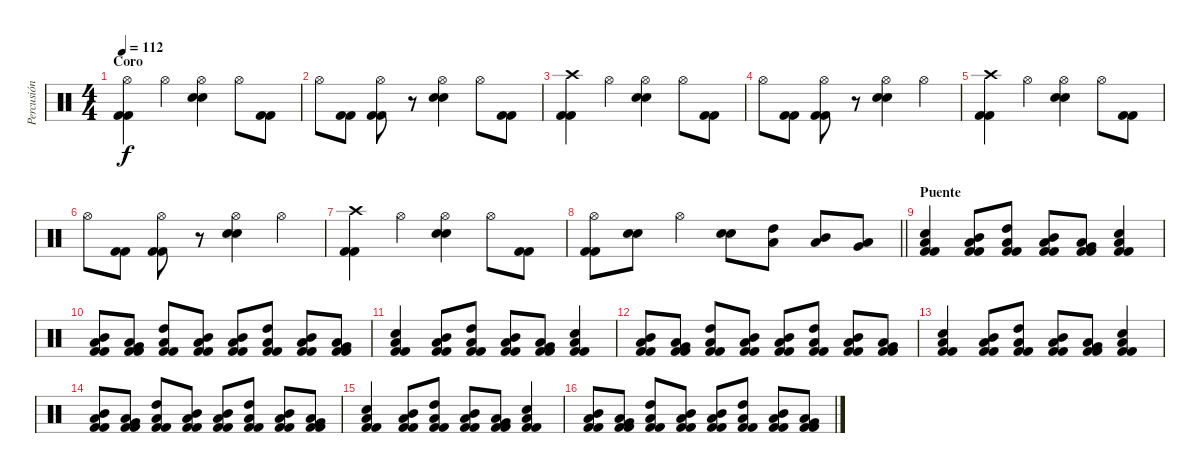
\track ("Percusión" "Percusión") {instrument percussion}
\staff {score}
\articulation defaults
\ts (4 4)
\section ("" "Coro")
\tempo 112
\clef neutral
\ks c
("Kick (hit) 2" "Hi-Hat (open)" "Kick (hit) 2").4{dy f} "Hi-Hat (open)".4 ("Hi-Hat (open)" "Electric Snare (hit)" "Electric Snare (hit)").4 "Hi-Hat (open)".8 ("Kick (hit) 2" "Kick (hit) 2").8 |
"Hi-Hat (open)".8 ("Kick (hit) 2" "Kick (hit) 2").8 ("Kick (hit) 2" "Hi-Hat (open)" "Kick (hit) 2").8 r.8 ("Electric Snare (hit)" "Electric Snare (hit)" "Hi-Hat (open)").4 "Hi-Hat (open)".8 ("Kick (hit) 2" "Kick (hit) 2").8 |
("Kick (hit) 2" "Crash high (hit)" "Kick (hit) 2").4 "Hi-Hat (open)".4 ("Hi-Hat (open)" "Electric Snare (hit)" "Electric Snare (hit)").4 "Hi-Hat (open)".8 ("Kick (hit) 2" "Kick (hit) 2").8 |
"Hi-Hat (open)".8 ("Kick (hit) 2" "Kick (hit) 2").8 ("Kick (hit) 2" "Hi-Hat (open)" "Kick (hit) 2").8 r.8 ("Electric Snare (hit)" "Electric Snare (hit)" "Hi-Hat (open)").4 "Hi-Hat (open)".4 |
("Kick (hit) 2" "Crash high (hit)" "Kick (hit) 2").4 "Hi-Hat (open)".4 ("Hi-Hat (open)" "Electric Snare (hit)" "Electric Snare (hit)").4 "Hi-Hat (open)".8 ("Kick (hit) 2" "Kick (hit) 2").8 |
"Hi-Hat (open)".8 ("Kick (hit) 2" "Kick (hit) 2").8 ("Kick (hit) 2" "Hi-Hat (open)" "Kick (hit) 2").8 r.8 ("Electric Snare (hit)" "Electric Snare (hit)" "Hi-Hat (open)").4 "Hi-Hat (open)".4 |
("Kick (hit) 2" "Crash high (hit)" "Kick (hit) 2").4 "Hi-Hat (open)".4 ("Hi-Hat (open)" "Electric Snare (hit)" "Electric Snare (hit)").4 "Hi-Hat (open)".8 ("Kick (hit) 2" "Kick (hit) 2").8 |
\barLineRight lightlight
("Kick (hit) 2" "Hi-Hat (open)" "Kick (hit) 2").8 ("Electric Snare (hit)" "Electric Snare (hit)").8 "Hi-Hat (open)".4 ("Electric Snare (hit)" "Electric Snare (hit)").8 ("High Tom (hit)" "Low Tom (hit)").8 ("Mid Tom (hit)" "Low Tom (hit)").8 ("Low Tom (hit)" "Very Low Tom (hit)").8 |
\section ("" "Puente")
("Kick (hit) 2" "Electric Snare (hit)" "Low Tom (hit)" "Kick (hit) 2").4 ("Kick (hit) 2" "Mid Tom (hit)" "Low Tom (hit)" "Kick (hit) 2").8 ("Kick (hit) 2" "High Tom (hit)" "Low Tom (hit)" "Kick (hit) 2").8 ("Kick (hit) 2" "Mid Tom (hit)" "Low Tom (hit)" "Kick (hit) 2").8 ("Kick (hit) 2" "Low Tom (hit)" "Very Low Tom (hit)" "Kick (hit) 2").8 ("Kick (hit) 2" "Electric Snare (hit)" "Low Tom (hit)" "Kick (hit) 2").4 |
("Kick (hit) 2" "Low Tom (hit)" "Mid Tom (hit)" "Kick (hit) 2").8 ("Kick (hit) 2" "Very Low Tom (hit)" "Low Tom (hit)" "Kick (hit) 2").8 ("Kick (hit) 2" "High Tom (hit)" "Low Tom (hit)" "Kick (hit) 2").8 ("Kick (hit) 2" "Low Tom (hit)" "Mid Tom (hit)" "Kick (hit) 2").8 ("Kick (hit) 2" "Low Tom (hit)" "Mid Tom (hit)" "Kick (hit) 2").8 ("Kick (hit) 2" "High Tom (hit)" "Low Tom (hit)" "Kick (hit) 2").8 ("Kick (hit) 2" "Low Tom (hit)" "Mid Tom (hit)" "Kick (hit) 2").8 ("Kick (hit) 2" "Very Low Tom (hit)" "Low Tom (hit)" "Kick (hit) 2").8 |
("Kick (hit) 2" "Electric Snare (hit)" "Low Tom (hit)" "Kick (hit) 2").4 ("Kick (hit) 2" "Mid Tom (hit)" "Low Tom (hit)" "Kick (hit) 2").8 ("Kick (hit) 2" "High Tom (hit)" "Low Tom (hit)" "Kick (hit) 2").8 ("Kick (hit) 2" "Mid Tom (hit)" "Low Tom (hit)" "Kick (hit) 2").8 ("Kick (hit) 2" "Low Tom (hit)" "Very Low Tom (hit)" "Kick (hit) 2").8 ("Kick (hit) 2" "Electric Snare (hit)" "Low Tom (hit)" "Kick (hit) 2").4 |
("Kick (hit) 2" "Low Tom (hit)" "Mid Tom (hit)" "Kick (hit) 2").8 ("Kick (hit) 2" "Very Low Tom (hit)" "Low Tom (hit)" "Kick (hit) 2").8 ("Kick (hit) 2" "High Tom (hit)" "Low Tom (hit)" "Kick (hit) 2").8 ("Kick (hit) 2" "Low Tom (hit)" "Mid Tom (hit)" "Kick (hit) 2").8 ("Kick (hit) 2" "Low Tom (hit)" "Mid Tom (hit)" "Kick (hit) 2").8 ("Kick (hit) 2" "High Tom (hit)" "Low Tom (hit)" "Kick (hit) 2").8 ("Kick (hit) 2" "Low Tom (hit)" "Mid Tom (hit)" "Kick (hit) 2").8 ("Kick (hit) 2" "Very Low Tom (hit)" "Low Tom (hit)" "Kick (hit) 2").8 |
("Kick (hit) 2" "Electric Snare (hit)" "Low Tom (hit)" "Kick (hit) 2").4 ("Kick (hit) 2" "Mid Tom (hit)" "Low Tom (hit)" "Kick (hit) 2").8 ("Kick (hit) 2" "High Tom (hit)" "Low Tom (hit)" "Kick (hit) 2").8 ("Kick (hit) 2" "Mid Tom (hit)" "Low Tom (hit)" "Kick (hit) 2").8 ("Kick (hit) 2" "Low Tom (hit)" "Very Low Tom (hit)" "Kick (hit) 2").8 ("Kick (hit) 2" "Electric Snare (hit)" "Low Tom (hit)" "Kick (hit) 2").4 |
("Kick (hit) 2" "Low Tom (hit)" "Mid Tom (hit)" "Kick (hit) 2").8 ("Kick (hit) 2" "Very Low Tom (hit)" "Low Tom (hit)" "Kick (hit) 2").8 ("Kick (hit) 2" "High Tom (hit)" "Low Tom (hit)" "Kick (hit) 2").8 ("Kick (hit) 2" "Low Tom (hit)" "Mid Tom (hit)" "Kick (hit) 2").8 ("Kick (hit) 2" "Low Tom (hit)" "Mid Tom (hit)" "Kick (hit) 2").8 ("Kick (hit) 2" "High Tom (hit)" "Low Tom (hit)" "Kick (hit) 2").8 ("Kick (hit) 2" "Low Tom (hit)" "Mid Tom (hit)" "Kick (hit) 2").8 ("Kick (hit) 2" "Very Low Tom (hit)" "Low Tom (hit)" "Kick (hit) 2").8 |
("Kick (hit) 2" "Electric Snare (hit)" "Low Tom (hit)" "Kick (hit) 2").4 ("Kick (hit) 2" "Mid Tom (hit)" "Low Tom (hit)" "Kick (hit) 2").8 ("Kick (hit) 2" "High Tom (hit)" "Low Tom (hit)" "Kick (hit) 2").8 ("Kick (hit) 2" "Mid Tom (hit)" "Low Tom (hit)" "Kick (hit) 2").8 ("Kick (hit) 2" "Low Tom (hit)" "Very Low Tom (hit)" "Kick (hit) 2").8 ("Kick (hit) 2" "Electric Snare (hit)" "Low Tom (hit)" "Kick (hit) 2").4 |
("Kick (hit) 2" "Low Tom (hit)" "Mid Tom (hit)" "Kick (hit) 2").8 ("Kick (hit) 2" "Very Low Tom (hit)" "Low Tom (hit)" "Kick (hit) 2").8 ("Kick (hit) 2" "High Tom (hit)" "Low Tom (hit)" "Kick (hit) 2").8 ("Kick (hit) 2" "Low Tom (hit)" "Mid Tom (hit)" "Kick (hit) 2").8 ("Kick (hit) 2" "Low Tom (hit)" "Mid Tom (hit)" "Kick (hit) 2").8 ("Kick (hit) 2" "High Tom (hit)" "Low Tom (hit)" "Kick (hit) 2").8 ("Kick (hit) 2" "Low Tom (hit)" "Mid Tom (hit)" "Kick (hit) 2").8 ("Kick (hit) 2" "Very Low Tom (hit)" "Low Tom (hit)" "Kick (hit) 2").8
